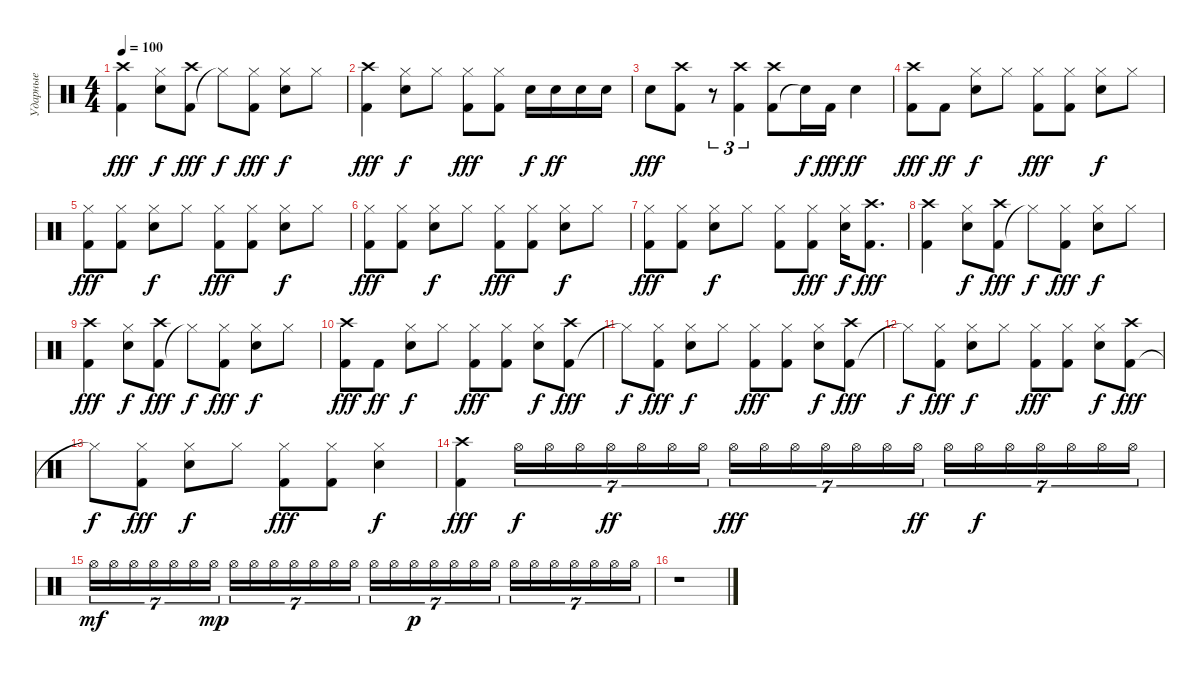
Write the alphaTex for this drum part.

\track ("Ударные" "Ударные") {instrument percussion}
\staff
\articulation defaults
\ts (4 4)
\tempo 100
\clef neutral
\ks c
("Kick (hit) 2" "Crash high (hit)").4{dy fff} ("Snare (hit) 2" "Hi-Hat (closed)").8{dy f} ("Kick (hit) 2" "Crash high (hit)").8{dy fff} "Hi-Hat (closed)"{t}.8{dy f} ("Kick (hit) 2" "Hi-Hat (closed)").8{dy fff} ("Snare (hit) 2" "Hi-Hat (closed)").8{dy f} "Hi-Hat (closed)".8 |
("Kick (hit) 2" "Crash high (hit)").4{dy fff} ("Snare (hit) 2" "Hi-Hat (closed)").8{dy f} "Hi-Hat (closed)".8 ("Kick (hit) 2" "Hi-Hat (closed)").8{dy fff} ("Kick (hit) 2" "Hi-Hat (closed)").8 "Snare (hit) 2".16{dy f} "Snare (hit) 2".16{dy ff} "Snare (hit) 2".16 "Snare (hit) 2".16 |
"Snare (hit) 2".8{dy fff} ("Kick (hit) 2" "Crash high (hit)").8 r.8{tu (3 2)} ("Kick (hit) 2" "Crash high (hit)").4{tu (3 2)} ("Kick (hit) 2" "Crash high (hit)").8 "Snare (hit)"{t}.16{dy f} "Kick (hit) 2".16{dy fff} "Snare (hit) 2".4{dy ff} |
("Kick (hit) 2" "Crash high (hit)").8{dy fff} "Kick (hit) 2".8{dy ff} ("Snare (hit) 2" "Hi-Hat (closed)").8{dy f} "Hi-Hat (closed)".8 ("Kick (hit) 2" "Hi-Hat (closed)").8{dy fff} ("Kick (hit) 2" "Hi-Hat (closed)").8 ("Snare (hit) 2" "Hi-Hat (closed)").8{dy f} "Hi-Hat (closed)".8 |
("Kick (hit) 2" "Hi-Hat (closed)").8{dy fff} ("Kick (hit) 2" "Hi-Hat (closed)").8 ("Snare (hit) 2" "Hi-Hat (closed)").8{dy f} "Hi-Hat (closed)".8 ("Kick (hit) 2" "Hi-Hat (closed)").8{dy fff} ("Kick (hit) 2" "Hi-Hat (closed)").8 ("Snare (hit) 2" "Hi-Hat (closed)").8{dy f} "Hi-Hat (closed)".8 |
("Kick (hit) 2" "Hi-Hat (closed)").8{dy fff} ("Kick (hit) 2" "Hi-Hat (closed)").8 ("Snare (hit) 2" "Hi-Hat (closed)").8{dy f} "Hi-Hat (closed)".8 ("Kick (hit) 2" "Hi-Hat (closed)").8{dy fff} ("Kick (hit) 2" "Hi-Hat (closed)").8 ("Snare (hit) 2" "Hi-Hat (closed)").8{dy f} "Hi-Hat (closed)".8 |
("Kick (hit) 2" "Hi-Hat (closed)").8{dy fff} ("Kick (hit) 2" "Hi-Hat (closed)").8 ("Snare (hit) 2" "Hi-Hat (closed)").8{dy f} "Hi-Hat (closed)".8 ("Kick (hit) 2" "Hi-Hat (closed)").8 ("Kick (hit) 2" "Hi-Hat (closed)").8{dy fff} ("Snare (hit) 2" "Hi-Hat (closed)").16{dy f} ("Kick (hit) 2" "Crash high (hit)").8{d dy fff} |
("Kick (hit) 2" "Crash high (hit)").4 ("Snare (hit) 2" "Hi-Hat (closed)").8{dy f} ("Kick (hit) 2" "Crash high (hit)").8{dy fff} "Hi-Hat (closed)"{t}.8{dy f} ("Kick (hit) 2" "Hi-Hat (closed)").8{dy fff} ("Snare (hit) 2" "Hi-Hat (closed)").8{dy f} "Hi-Hat (closed)".8 |
("Kick (hit) 2" "Crash high (hit)").4{dy fff} ("Snare (hit) 2" "Hi-Hat (closed)").8{dy f} ("Kick (hit) 2" "Crash high (hit)").8{dy fff} "Hi-Hat (closed)"{t}.8{dy f} ("Kick (hit) 2" "Hi-Hat (closed)").8{dy fff} ("Snare (hit) 2" "Hi-Hat (closed)").8{dy f} "Hi-Hat (closed)".8 |
("Kick (hit) 2" "Crash high (hit)").8{dy fff} "Kick (hit) 2".8{dy ff} ("Snare (hit) 2" "Hi-Hat (closed)").8{dy f} "Hi-Hat (closed)".8 ("Kick (hit) 2" "Hi-Hat (closed)").8{dy fff} ("Kick (hit) 2" "Hi-Hat (closed)").8 ("Snare (hit) 2" "Hi-Hat (closed)").8{dy f} ("Kick (hit) 2" "Crash high (hit)").8{dy fff} |
"Hi-Hat (closed)"{t}.8{dy f} ("Kick (hit) 2" "Hi-Hat (closed)").8{dy fff} ("Snare (hit) 2" "Hi-Hat (closed)").8{dy f} "Hi-Hat (closed)".8 ("Kick (hit) 2" "Hi-Hat (closed)").8{dy fff} ("Kick (hit) 2" "Hi-Hat (closed)").8 ("Snare (hit) 2" "Hi-Hat (closed)").8{dy f} ("Kick (hit) 2" "Crash high (hit)").8{dy fff} |
"Hi-Hat (closed)"{t}.8{dy f} ("Kick (hit) 2" "Hi-Hat (closed)").8{dy fff} ("Snare (hit) 2" "Hi-Hat (closed)").8{dy f} "Hi-Hat (closed)".8 ("Kick (hit) 2" "Hi-Hat (closed)").8{dy fff} ("Kick (hit) 2" "Hi-Hat (closed)").8 ("Snare (hit) 2" "Hi-Hat (closed)").8{dy f} ("Kick (hit) 2" "Crash high (hit)").8{dy fff} |
"Hi-Hat (closed)"{t}.8{dy f} ("Kick (hit) 2" "Hi-Hat (closed)").8{dy fff} ("Snare (hit) 2" "Hi-Hat (closed)").8{dy f} "Hi-Hat (closed)".8 ("Kick (hit) 2" "Hi-Hat (closed)").8{dy fff} ("Kick (hit) 2" "Hi-Hat (closed)").8 ("Snare (hit) 2" "Hi-Hat (closed)").4{dy f} |
("Kick (hit) 2" "Crash high (hit)").4{dy fff} "Hi-Hat (open)".16{tu (7 4) dy f} "Hi-Hat (open)".16{tu (7 4)} "Hi-Hat (open)".16{tu (7 4)} "Hi-Hat (open)".16{tu (7 4) dy ff} "Hi-Hat (open)".16{tu (7 4)} "Hi-Hat (open)".16{tu (7 4)} "Hi-Hat (open)".16{tu (7 4)} "Hi-Hat (open)".16{tu (7 4) dy fff} "Hi-Hat (open)".16{tu (7 4)} "Hi-Hat (open)".16{tu (7 4)} "Hi-Hat (open)".16{tu (7 4)} "Hi-Hat (open)".16{tu (7 4)} "Hi-Hat (open)".16{tu (7 4)} "Hi-Hat (open)".16{tu (7 4) dy ff} "Hi-Hat (open)".16{tu (7 4)} "Hi-Hat (open)".16{tu (7 4) dy f} "Hi-Hat (open)".16{tu (7 4)} "Hi-Hat (open)".16{tu (7 4)} "Hi-Hat (open)".16{tu (7 4)} "Hi-Hat (open)".16{tu (7 4)} "Hi-Hat (open)".16{tu (7 4)} |
"Hi-Hat (open)".16{tu (7 4) dy mf} "Hi-Hat (open)".16{tu (7 4)} "Hi-Hat (open)".16{tu (7 4)} "Hi-Hat (open)".16{tu (7 4)} "Hi-Hat (open)".16{tu (7 4)} "Hi-Hat (open)".16{tu (7 4)} "Hi-Hat (open)".16{tu (7 4) dy mp} "Hi-Hat (open)".16{tu (7 4)} "Hi-Hat (open)".16{tu (7 4)} "Hi-Hat (open)".16{tu (7 4)} "Hi-Hat (open)".16{tu (7 4)} "Hi-Hat (open)".16{tu (7 4)} "Hi-Hat (open)".16{tu (7 4)} "Hi-Hat (open)".16{tu (7 4)} "Hi-Hat (open)".16{tu (7 4)} "Hi-Hat (open)".16{tu (7 4)} "Hi-Hat (open)".16{tu (7 4) dy p} "Hi-Hat (open)".16{tu (7 4)} "Hi-Hat (open)".16{tu (7 4)} "Hi-Hat (open)".16{tu (7 4)} "Hi-Hat (open)".16{tu (7 4)} "Hi-Hat (open)".16{tu (7 4)} "Hi-Hat (open)".16{tu (7 4)} "Hi-Hat (open)".16{tu (7 4)} "Hi-Hat (open)".16{tu (7 4)} "Hi-Hat (open)".16{tu (7 4)} "Hi-Hat (open)".16{tu (7 4)} "Hi-Hat (open)".16{tu (7 4)} |
r.1
